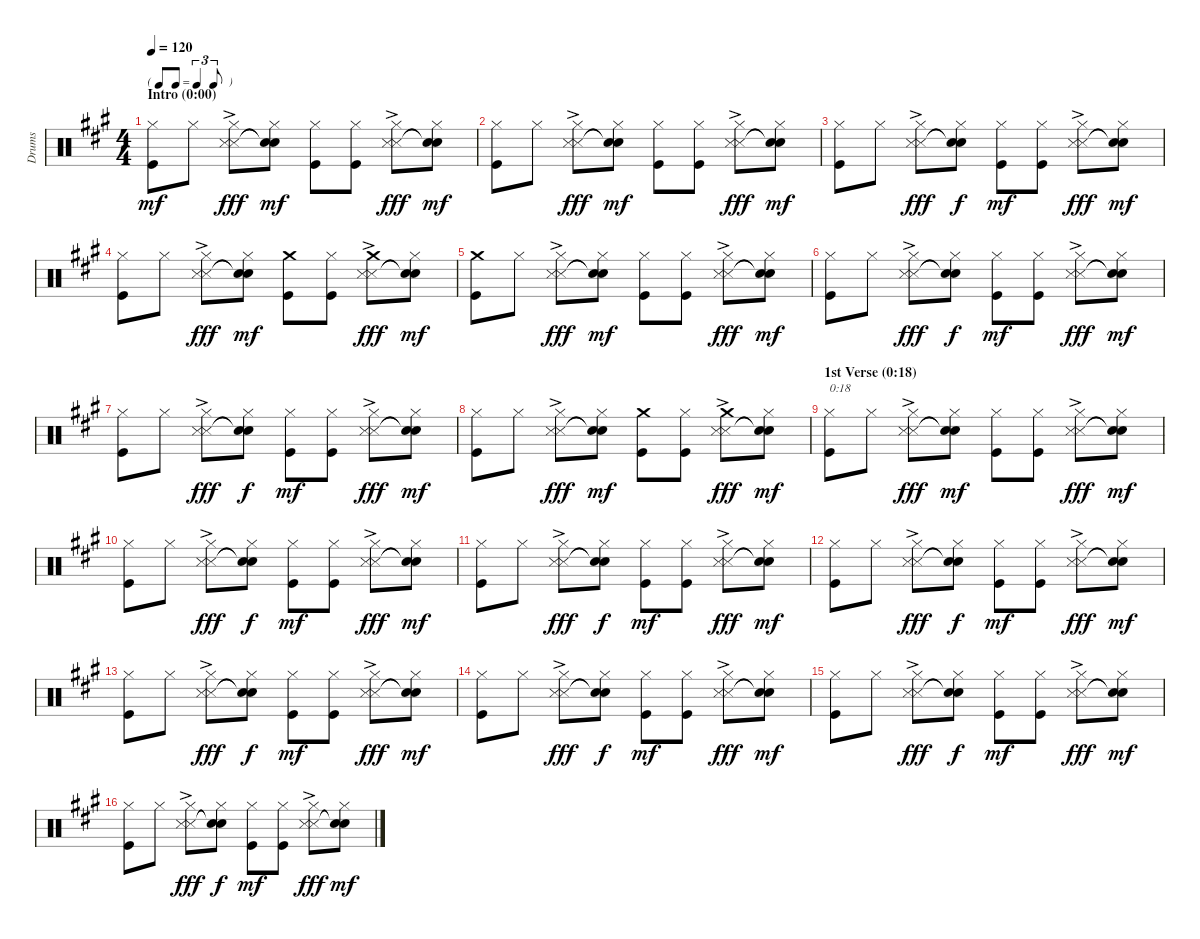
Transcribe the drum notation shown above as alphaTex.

\track ("Drums" "Drums") {instrument percussion}
\staff {score}
\articulation defaults
\ts (4 4)
\tf triplet8th
\section ("" "Intro (0:00)")
\tempo 120
\clef neutral
\ks a
("Hi-Hat (closed)" "Kick (hit)").8{dy mf} "Hi-Hat (closed)".8 ("Hi-Hat (closed)" "Snare (side stick) 3"{ac} "Snare (side stick) 3"{ac}).8{dy fff} ("Hi-Hat (closed)" "Snare (hit)"{t} "Snare (hit)"{t}).8{dy mf} ("Hi-Hat (closed)" "Kick (hit)").8 ("Hi-Hat (closed)" "Kick (hit)").8 ("Hi-Hat (closed)" "Snare (side stick) 3"{ac} "Snare (side stick) 3"{ac}).8{dy fff} ("Hi-Hat (closed)" "Snare (hit)"{t} "Snare (hit)"{t}).8{dy mf} |
("Hi-Hat (closed)" "Kick (hit)").8 "Hi-Hat (closed)".8 ("Hi-Hat (closed)" "Snare (side stick) 3"{ac} "Snare (side stick) 3"{ac}).8{dy fff} ("Hi-Hat (closed)" "Snare (hit)"{t} "Snare (hit)"{t}).8{dy mf} ("Hi-Hat (closed)" "Kick (hit)").8 ("Hi-Hat (closed)" "Kick (hit)").8 ("Hi-Hat (closed)" "Snare (side stick) 3"{ac} "Snare (side stick) 3"{ac}).8{dy fff} ("Hi-Hat (closed)" "Snare (hit)"{t} "Snare (hit)"{t}).8{dy mf} |
("Hi-Hat (closed)" "Kick (hit)").8 "Hi-Hat (closed)".8 ("Hi-Hat (closed)" "Snare (side stick) 3"{ac} "Snare (side stick) 3"{ac}).8{dy fff} ("Hi-Hat (closed)" "Snare (hit)"{t} "Snare (hit)"{t}).8{dy f} ("Hi-Hat (closed)" "Kick (hit)").8{dy mf} ("Hi-Hat (closed)" "Kick (hit)").8 ("Hi-Hat (closed)" "Snare (side stick) 3"{ac} "Snare (side stick) 3"{ac}).8{dy fff} ("Hi-Hat (closed)" "Snare (hit)"{t} "Snare (hit)"{t}).8{dy mf} |
("Hi-Hat (closed)" "Kick (hit)").8 "Hi-Hat (closed)".8 ("Hi-Hat (closed)" "Snare (side stick) 3"{ac} "Snare (side stick) 3"{ac}).8{dy fff} ("Hi-Hat (closed)" "Snare (hit)"{t} "Snare (hit)"{t}).8{dy mf} ("Crash medium (hit)" "Kick (hit)").8 ("Hi-Hat (closed)" "Kick (hit)").8 ("Crash medium (hit)"{ac} "Snare (side stick) 3"{ac} "Snare (side stick) 3"{ac}).8{dy fff} ("Hi-Hat (closed)" "Snare (hit)"{t} "Snare (hit)"{t}).8{dy mf} |
("Crash medium (hit)" "Kick (hit)").8 "Hi-Hat (closed)".8 ("Hi-Hat (closed)" "Snare (side stick) 3"{ac} "Snare (side stick) 3"{ac}).8{dy fff} ("Hi-Hat (closed)" "Snare (hit)"{t} "Snare (hit)"{t}).8{dy mf} ("Hi-Hat (closed)" "Kick (hit)").8 ("Hi-Hat (closed)" "Kick (hit)").8 ("Hi-Hat (closed)" "Snare (side stick) 3"{ac} "Snare (side stick) 3"{ac}).8{dy fff} ("Hi-Hat (closed)" "Snare (hit)"{t} "Snare (hit)"{t}).8{dy mf} |
("Hi-Hat (closed)" "Kick (hit)").8 "Hi-Hat (closed)".8 ("Hi-Hat (closed)" "Snare (side stick) 3"{ac} "Snare (side stick) 3"{ac}).8{dy fff} ("Hi-Hat (closed)" "Snare (hit)"{t} "Snare (hit)"{t}).8{dy f} ("Hi-Hat (closed)" "Kick (hit)").8{dy mf} ("Hi-Hat (closed)" "Kick (hit)").8 ("Hi-Hat (closed)" "Snare (side stick) 3"{ac} "Snare (side stick) 3"{ac}).8{dy fff} ("Hi-Hat (closed)" "Snare (hit)"{t} "Snare (hit)"{t}).8{dy mf} |
("Hi-Hat (closed)" "Kick (hit)").8 "Hi-Hat (closed)".8 ("Hi-Hat (closed)" "Snare (side stick) 3"{ac} "Snare (side stick) 3"{ac}).8{dy fff} ("Hi-Hat (closed)" "Snare (hit)"{t} "Snare (hit)"{t}).8{dy f} ("Hi-Hat (closed)" "Kick (hit)").8{dy mf} ("Hi-Hat (closed)" "Kick (hit)").8 ("Hi-Hat (closed)" "Snare (side stick) 3"{ac} "Snare (side stick) 3"{ac}).8{dy fff} ("Hi-Hat (closed)" "Snare (hit)"{t} "Snare (hit)"{t}).8{dy mf} |
("Hi-Hat (closed)" "Kick (hit)").8 "Hi-Hat (closed)".8 ("Hi-Hat (closed)" "Snare (side stick) 3"{ac} "Snare (side stick) 3"{ac}).8{dy fff} ("Hi-Hat (closed)" "Snare (hit)"{t} "Snare (hit)"{t}).8{dy mf} ("Crash medium (hit)" "Kick (hit)").8 ("Hi-Hat (closed)" "Kick (hit)").8 ("Crash medium (hit)"{ac} "Snare (side stick) 3"{ac} "Snare (side stick) 3"{ac}).8{dy fff} ("Hi-Hat (closed)" "Snare (hit)"{t} "Snare (hit)"{t}).8{dy mf} |
\section ("" "1st Verse (0:18)")
("Hi-Hat (closed)" "Kick (hit)").8{txt "0:18"} "Hi-Hat (closed)".8 ("Hi-Hat (closed)" "Snare (side stick) 3"{ac} "Snare (side stick) 3"{ac}).8{dy fff} ("Hi-Hat (closed)" "Snare (hit)"{t} "Snare (hit)"{t}).8{dy mf} ("Hi-Hat (closed)" "Kick (hit)").8 ("Hi-Hat (closed)" "Kick (hit)").8 ("Hi-Hat (closed)" "Snare (side stick) 3"{ac} "Snare (side stick) 3"{ac}).8{dy fff} ("Hi-Hat (closed)" "Snare (hit)"{t} "Snare (hit)"{t}).8{dy mf} |
("Hi-Hat (closed)" "Kick (hit)").8 "Hi-Hat (closed)".8 ("Hi-Hat (closed)" "Snare (side stick) 3"{ac} "Snare (side stick) 3"{ac}).8{dy fff} ("Hi-Hat (closed)" "Snare (hit)"{t} "Snare (hit)"{t}).8{dy f} ("Hi-Hat (closed)" "Kick (hit)").8{dy mf} ("Hi-Hat (closed)" "Kick (hit)").8 ("Hi-Hat (closed)" "Snare (side stick) 3"{ac} "Snare (side stick) 3"{ac}).8{dy fff} ("Hi-Hat (closed)" "Snare (hit)"{t} "Snare (hit)"{t}).8{dy mf} |
("Hi-Hat (closed)" "Kick (hit)").8 "Hi-Hat (closed)".8 ("Hi-Hat (closed)" "Snare (side stick) 3"{ac} "Snare (side stick) 3"{ac}).8{dy fff} ("Hi-Hat (closed)" "Snare (hit)"{t} "Snare (hit)"{t}).8{dy f} ("Hi-Hat (closed)" "Kick (hit)").8{dy mf} ("Hi-Hat (closed)" "Kick (hit)").8 ("Hi-Hat (closed)" "Snare (side stick) 3"{ac} "Snare (side stick) 3"{ac}).8{dy fff} ("Hi-Hat (closed)" "Snare (hit)"{t} "Snare (hit)"{t}).8{dy mf} |
("Hi-Hat (closed)" "Kick (hit)").8 "Hi-Hat (closed)".8 ("Hi-Hat (closed)" "Snare (side stick) 3"{ac} "Snare (side stick) 3"{ac}).8{dy fff} ("Hi-Hat (closed)" "Snare (hit)"{t} "Snare (hit)"{t}).8{dy f} ("Hi-Hat (closed)" "Kick (hit)").8{dy mf} ("Hi-Hat (closed)" "Kick (hit)").8 ("Hi-Hat (closed)" "Snare (side stick) 3"{ac} "Snare (side stick) 3"{ac}).8{dy fff} ("Hi-Hat (closed)" "Snare (hit)"{t} "Snare (hit)"{t}).8{dy mf} |
("Hi-Hat (closed)" "Kick (hit)").8 "Hi-Hat (closed)".8 ("Hi-Hat (closed)" "Snare (side stick) 3"{ac} "Snare (side stick) 3"{ac}).8{dy fff} ("Hi-Hat (closed)" "Snare (hit)"{t} "Snare (hit)"{t}).8{dy f} ("Hi-Hat (closed)" "Kick (hit)").8{dy mf} ("Hi-Hat (closed)" "Kick (hit)").8 ("Hi-Hat (closed)" "Snare (side stick) 3"{ac} "Snare (side stick) 3"{ac}).8{dy fff} ("Hi-Hat (closed)" "Snare (hit)"{t} "Snare (hit)"{t}).8{dy mf} |
("Hi-Hat (closed)" "Kick (hit)").8 "Hi-Hat (closed)".8 ("Hi-Hat (closed)" "Snare (side stick) 3"{ac} "Snare (side stick) 3"{ac}).8{dy fff} ("Hi-Hat (closed)" "Snare (hit)"{t} "Snare (hit)"{t}).8{dy f} ("Hi-Hat (closed)" "Kick (hit)").8{dy mf} ("Hi-Hat (closed)" "Kick (hit)").8 ("Hi-Hat (closed)" "Snare (side stick) 3"{ac} "Snare (side stick) 3"{ac}).8{dy fff} ("Hi-Hat (closed)" "Snare (hit)"{t} "Snare (hit)"{t}).8{dy mf} |
("Hi-Hat (closed)" "Kick (hit)").8 "Hi-Hat (closed)".8 ("Hi-Hat (closed)" "Snare (side stick) 3"{ac} "Snare (side stick) 3"{ac}).8{dy fff} ("Hi-Hat (closed)" "Snare (hit)"{t} "Snare (hit)"{t}).8{dy f} ("Hi-Hat (closed)" "Kick (hit)").8{dy mf} ("Hi-Hat (closed)" "Kick (hit)").8 ("Hi-Hat (closed)" "Snare (side stick) 3"{ac} "Snare (side stick) 3"{ac}).8{dy fff} ("Hi-Hat (closed)" "Snare (hit)"{t} "Snare (hit)"{t}).8{dy mf} |
("Hi-Hat (closed)" "Kick (hit)").8 "Hi-Hat (closed)".8 ("Hi-Hat (closed)" "Snare (side stick) 3"{ac} "Snare (side stick) 3"{ac}).8{dy fff} ("Hi-Hat (closed)" "Snare (hit)"{t} "Snare (hit)"{t}).8{dy f} ("Hi-Hat (closed)" "Kick (hit)").8{dy mf} ("Hi-Hat (closed)" "Kick (hit)").8 ("Hi-Hat (closed)" "Snare (side stick) 3"{ac} "Snare (side stick) 3"{ac}).8{dy fff} ("Hi-Hat (closed)" "Snare (hit)"{t} "Snare (hit)"{t}).8{dy mf}
